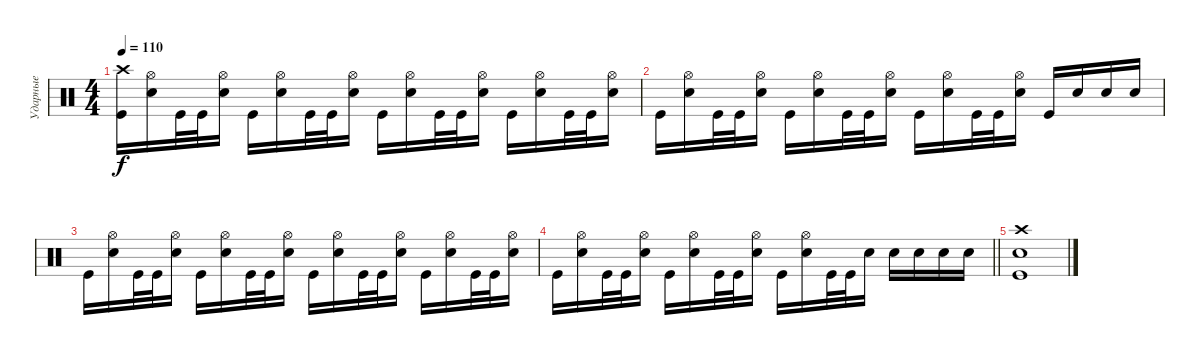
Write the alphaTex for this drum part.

\track ("Ударные" "Ударные") {instrument percussion}
\staff {score}
\articulation defaults
\ts (4 4)
\tempo 110
\clef neutral
\ks c
("Kick (hit)" "Crash high (hit)").16{dy f} ("Snare (hit) 2" "Hi-Hat (open)").16 "Kick (hit)".32 "Kick (hit)".32 ("Snare (hit) 2" "Hi-Hat (open)").16 "Kick (hit)".16 ("Snare (hit) 2" "Hi-Hat (open)").16 "Kick (hit)".32 "Kick (hit)".32 ("Snare (hit) 2" "Hi-Hat (open)").16 "Kick (hit)".16 ("Snare (hit) 2" "Hi-Hat (open)").16 "Kick (hit)".32 "Kick (hit)".32 ("Snare (hit) 2" "Hi-Hat (open)").16 "Kick (hit)".16 ("Snare (hit) 2" "Hi-Hat (open)").16 "Kick (hit)".32 "Kick (hit)".32 ("Snare (hit) 2" "Hi-Hat (open)").16 |
"Kick (hit)".16 ("Snare (hit) 2" "Hi-Hat (open)").16 "Kick (hit)".32 "Kick (hit)".32 ("Snare (hit) 2" "Hi-Hat (open)").16 "Kick (hit)".16 ("Snare (hit) 2" "Hi-Hat (open)").16 "Kick (hit)".32 "Kick (hit)".32 ("Snare (hit) 2" "Hi-Hat (open)").16 "Kick (hit)".16 ("Snare (hit) 2" "Hi-Hat (open)").16 "Kick (hit)".32 "Kick (hit)".32 ("Snare (hit) 2" "Hi-Hat (open)").16 "Kick (hit)".16 "Snare (hit) 2".16 "Snare (hit) 2".16 "Snare (hit) 2".16 |
"Kick (hit)".16 ("Snare (hit) 2" "Hi-Hat (open)").16 "Kick (hit)".32 "Kick (hit)".32 ("Snare (hit) 2" "Hi-Hat (open)").16 "Kick (hit)".16 ("Snare (hit) 2" "Hi-Hat (open)").16 "Kick (hit)".32 "Kick (hit)".32 ("Snare (hit) 2" "Hi-Hat (open)").16 "Kick (hit)".16 ("Snare (hit) 2" "Hi-Hat (open)").16 "Kick (hit)".32 "Kick (hit)".32 ("Snare (hit) 2" "Hi-Hat (open)").16 "Kick (hit)".16 ("Snare (hit) 2" "Hi-Hat (open)").16 "Kick (hit)".32 "Kick (hit)".32 ("Snare (hit) 2" "Hi-Hat (open)").16 |
\barLineRight lightlight "Kick (hit)".16
("Snare (hit) 2" "Hi-Hat (open)").16 "Kick (hit)".32 "Kick (hit)".32 ("Snare (hit) 2" "Hi-Hat (open)").16 "Kick (hit)".16 ("Snare (hit) 2" "Hi-Hat (open)").16 "Kick (hit)".32 "Kick (hit)".32 ("Snare (hit) 2" "Hi-Hat (open)").16 "Kick (hit)".16 ("Snare (hit) 2" "Hi-Hat (open)").16 "Kick (hit)".32 "Kick (hit)".32 "Snare (hit) 2".16 "Snare (hit) 2".16 "Snare (hit) 2".16 "Snare (hit) 2".16 "Snare (hit) 2".16 |
("Kick (hit)" "Snare (hit) 2" "Crash high (hit)").1
